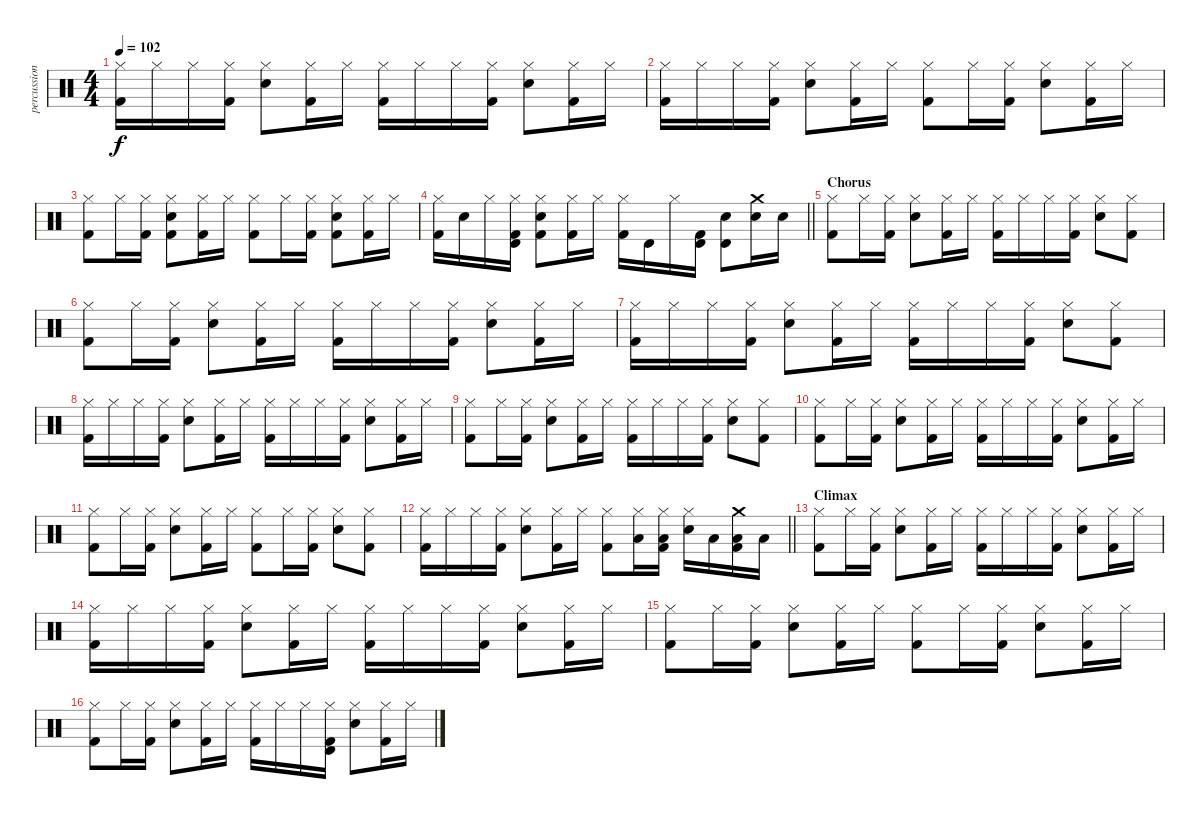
\track ("percussion" "percussion") {instrument percussion}
\staff {score}
\articulation defaults
\ts (4 4)
\tempo 102
\clef neutral
\ks aminor
("Hi-Hat (closed)" "Kick (hit) 2").16{dy f} "Hi-Hat (closed)".16 "Hi-Hat (closed)".16 ("Hi-Hat (closed)" "Kick (hit) 2").16 ("Snare (hit) 2" "Hi-Hat (closed)").8 ("Hi-Hat (closed)" "Kick (hit) 2").16 "Hi-Hat (closed)".16 ("Hi-Hat (closed)" "Kick (hit) 2").16 "Hi-Hat (closed)".16 "Hi-Hat (closed)".16 ("Hi-Hat (closed)" "Kick (hit) 2").16 ("Snare (hit) 2" "Hi-Hat (closed)").8 ("Hi-Hat (closed)" "Kick (hit) 2").16 "Hi-Hat (closed)".16 |
("Hi-Hat (closed)" "Kick (hit) 2").16 "Hi-Hat (closed)".16 "Hi-Hat (closed)".16 ("Hi-Hat (closed)" "Kick (hit) 2").16 ("Snare (hit) 2" "Hi-Hat (closed)").8 ("Hi-Hat (closed)" "Kick (hit) 2").16 "Hi-Hat (closed)".16 ("Hi-Hat (closed)" "Kick (hit) 2").8 "Hi-Hat (closed)".16 ("Hi-Hat (closed)" "Kick (hit) 2").16 ("Snare (hit) 2" "Hi-Hat (closed)").8 ("Hi-Hat (closed)" "Kick (hit) 2").16 "Hi-Hat (closed)".16 |
("Hi-Hat (closed)" "Kick (hit) 2").8 "Hi-Hat (closed)".16 ("Hi-Hat (closed)" "Kick (hit) 2").16 ("Snare (hit) 2" "Hi-Hat (closed)" "Kick (hit) 2").8 ("Hi-Hat (closed)" "Kick (hit) 2").16 "Hi-Hat (closed)".16 ("Hi-Hat (closed)" "Kick (hit) 2").8 "Hi-Hat (closed)".16 ("Hi-Hat (closed)" "Kick (hit) 2").16 ("Snare (hit) 2" "Hi-Hat (closed)" "Kick (hit) 2").8 ("Hi-Hat (closed)" "Kick (hit) 2").16 "Hi-Hat (closed)".16 |
\barLineRight lightlight
("Hi-Hat (closed)" "Kick (hit) 2").16 "Snare (hit) 2".16 "Hi-Hat (closed)".16 ("Timbale high (hit)" "Hi-Hat (closed)" "Kick (hit) 2").16 ("Snare (hit) 2" "Hi-Hat (closed)" "Kick (hit) 2").8 ("Hi-Hat (closed)" "Kick (hit) 2").16 "Hi-Hat (closed)".16 ("Hi-Hat (closed)" "Kick (hit) 2").16 "Timbale high (hit)".16 "Hi-Hat (closed)".16 ("Timbale high (hit)" "Kick (hit) 2").16 ("Timbale high (hit)" "Snare (hit) 2").8 ("Crash medium (hit)" "Snare (hit) 2").16 "Snare (hit) 2".16 |
\section ("" "Chorus")
("Hi-Hat (closed)" "Kick (hit) 2").8 "Hi-Hat (closed)".16 ("Hi-Hat (closed)" "Kick (hit) 2").16 ("Snare (hit) 2" "Hi-Hat (closed)").8 ("Hi-Hat (closed)" "Kick (hit) 2").16 "Hi-Hat (closed)".16 ("Hi-Hat (closed)" "Kick (hit) 2").16 "Hi-Hat (closed)".16 "Hi-Hat (closed)".16 ("Hi-Hat (closed)" "Kick (hit) 2").16 ("Snare (hit) 2" "Hi-Hat (closed)").8 ("Hi-Hat (closed)" "Kick (hit) 2").8 |
("Hi-Hat (closed)" "Kick (hit) 2").8 "Hi-Hat (closed)".16 ("Hi-Hat (closed)" "Kick (hit) 2").16 ("Snare (hit) 2" "Hi-Hat (closed)").8 ("Hi-Hat (closed)" "Kick (hit) 2").16 "Hi-Hat (closed)".16 ("Hi-Hat (closed)" "Kick (hit) 2").16 "Hi-Hat (closed)".16 "Hi-Hat (closed)".16 ("Hi-Hat (closed)" "Kick (hit) 2").16 ("Snare (hit) 2" "Hi-Hat (closed)").8 ("Hi-Hat (closed)" "Kick (hit) 2").16 "Hi-Hat (closed)".16 |
("Hi-Hat (closed)" "Kick (hit) 2").16 "Hi-Hat (closed)".16 "Hi-Hat (closed)".16 ("Hi-Hat (closed)" "Kick (hit) 2").16 ("Snare (hit) 2" "Hi-Hat (closed)").8 ("Hi-Hat (closed)" "Kick (hit) 2").16 "Hi-Hat (closed)".16 ("Hi-Hat (closed)" "Kick (hit) 2").16 "Hi-Hat (closed)".16 "Hi-Hat (closed)".16 ("Hi-Hat (closed)" "Kick (hit) 2").16 ("Snare (hit) 2" "Hi-Hat (closed)").8 ("Hi-Hat (closed)" "Kick (hit) 2").8 |
("Hi-Hat (closed)" "Kick (hit) 2").16 "Hi-Hat (closed)".16 "Hi-Hat (closed)".16 ("Hi-Hat (closed)" "Kick (hit) 2").16 ("Snare (hit) 2" "Hi-Hat (closed)").8 ("Hi-Hat (closed)" "Kick (hit) 2").16 "Hi-Hat (closed)".16 ("Hi-Hat (closed)" "Kick (hit) 2").16 "Hi-Hat (closed)".16 "Hi-Hat (closed)".16 ("Hi-Hat (closed)" "Kick (hit) 2").16 ("Snare (hit) 2" "Hi-Hat (closed)").8 ("Hi-Hat (closed)" "Kick (hit) 2").16 "Hi-Hat (closed)".16 |
("Hi-Hat (closed)" "Kick (hit) 2").8 "Hi-Hat (closed)".16 ("Hi-Hat (closed)" "Kick (hit) 2").16 ("Snare (hit) 2" "Hi-Hat (closed)").8 ("Hi-Hat (closed)" "Kick (hit) 2").16 "Hi-Hat (closed)".16 ("Hi-Hat (closed)" "Kick (hit) 2").16 "Hi-Hat (closed)".16 "Hi-Hat (closed)".16 ("Hi-Hat (closed)" "Kick (hit) 2").16 ("Snare (hit) 2" "Hi-Hat (closed)").8 ("Hi-Hat (closed)" "Kick (hit) 2").8 |
("Hi-Hat (closed)" "Kick (hit) 2").8 "Hi-Hat (closed)".16 ("Hi-Hat (closed)" "Kick (hit) 2").16 ("Snare (hit) 2" "Hi-Hat (closed)").8 ("Hi-Hat (closed)" "Kick (hit) 2").16 "Hi-Hat (closed)".16 ("Hi-Hat (closed)" "Kick (hit) 2").16 "Hi-Hat (closed)".16 "Hi-Hat (closed)".16 ("Hi-Hat (closed)" "Kick (hit) 2").16 ("Snare (hit) 2" "Hi-Hat (closed)").8 ("Hi-Hat (closed)" "Kick (hit) 2").16 "Hi-Hat (closed)".16 |
("Hi-Hat (closed)" "Kick (hit) 2").8 "Hi-Hat (closed)".16 ("Hi-Hat (closed)" "Kick (hit) 2").16 ("Snare (hit) 2" "Hi-Hat (closed)").8 ("Hi-Hat (closed)" "Kick (hit) 2").16 "Hi-Hat (closed)".16 ("Hi-Hat (closed)" "Kick (hit) 2").8 "Hi-Hat (closed)".16 ("Hi-Hat (closed)" "Kick (hit) 2").16 ("Snare (hit) 2" "Hi-Hat (closed)").8 ("Hi-Hat (closed)" "Kick (hit) 2").8 |
\barLineRight lightlight
("Hi-Hat (closed)" "Kick (hit) 2").16 "Hi-Hat (closed)".16 "Hi-Hat (closed)".16 ("Hi-Hat (closed)" "Kick (hit) 2").16 ("Snare (hit) 2" "Hi-Hat (closed)").8 ("Hi-Hat (closed)" "Kick (hit) 2").16 "Hi-Hat (closed)".16 ("Hi-Hat (closed)" "Kick (hit) 2").8 ("Low Tom (hit)" "Hi-Hat (closed)").16 ("Low Tom (hit)" "Hi-Hat (closed)" "Kick (hit) 2").16 ("Snare (hit) 2" "Hi-Hat (closed)").16 "Low Tom (hit)".16 ("Crash medium (hit)" "Low Tom (hit)" "Kick (hit) 2").16 "Low Tom (hit)".16 |
\section ("" "Climax")
("Hi-Hat (closed)" "Kick (hit) 2").8 "Hi-Hat (closed)".16 ("Hi-Hat (closed)" "Kick (hit) 2").16 ("Snare (hit) 2" "Hi-Hat (closed)").8 ("Hi-Hat (closed)" "Kick (hit) 2").16 "Hi-Hat (closed)".16 ("Hi-Hat (closed)" "Kick (hit) 2").16 "Hi-Hat (closed)".16 "Hi-Hat (closed)".16 ("Hi-Hat (closed)" "Kick (hit) 2").16 ("Snare (hit) 2" "Hi-Hat (closed)").8 ("Hi-Hat (closed)" "Kick (hit) 2").16 "Hi-Hat (closed)".16 |
("Hi-Hat (closed)" "Kick (hit) 2").16 "Hi-Hat (closed)".16 "Hi-Hat (closed)".16 ("Hi-Hat (closed)" "Kick (hit) 2").16 ("Snare (hit) 2" "Hi-Hat (closed)").8 ("Hi-Hat (closed)" "Kick (hit) 2").16 "Hi-Hat (closed)".16 ("Hi-Hat (closed)" "Kick (hit) 2").16 "Hi-Hat (closed)".16 "Hi-Hat (closed)".16 ("Hi-Hat (closed)" "Kick (hit) 2").16 ("Snare (hit) 2" "Hi-Hat (closed)").8 ("Hi-Hat (closed)" "Kick (hit) 2").16 "Hi-Hat (closed)".16 |
("Hi-Hat (closed)" "Kick (hit) 2").8 "Hi-Hat (closed)".16 ("Hi-Hat (closed)" "Kick (hit) 2").16 ("Snare (hit) 2" "Hi-Hat (closed)").8 ("Hi-Hat (closed)" "Kick (hit) 2").16 "Hi-Hat (closed)".16 ("Hi-Hat (closed)" "Kick (hit) 2").8 "Hi-Hat (closed)".16 ("Hi-Hat (closed)" "Kick (hit) 2").16 ("Snare (hit) 2" "Hi-Hat (closed)").8 ("Hi-Hat (closed)" "Kick (hit) 2").16 "Hi-Hat (closed)".16 |
("Hi-Hat (closed)" "Kick (hit) 2").8 "Hi-Hat (closed)".16 ("Hi-Hat (closed)" "Kick (hit) 2").16 ("Snare (hit) 2" "Hi-Hat (closed)").8 ("Hi-Hat (closed)" "Kick (hit) 2").16 "Hi-Hat (closed)".16 ("Hi-Hat (closed)" "Kick (hit) 2").16 "Hi-Hat (closed)".16 "Hi-Hat (closed)".16 ("Timbale high (hit)" "Hi-Hat (closed)" "Kick (hit) 2").16 ("Snare (hit) 2" "Hi-Hat (closed)").8 ("Hi-Hat (closed)" "Kick (hit) 2").16 "Hi-Hat (closed)".16
